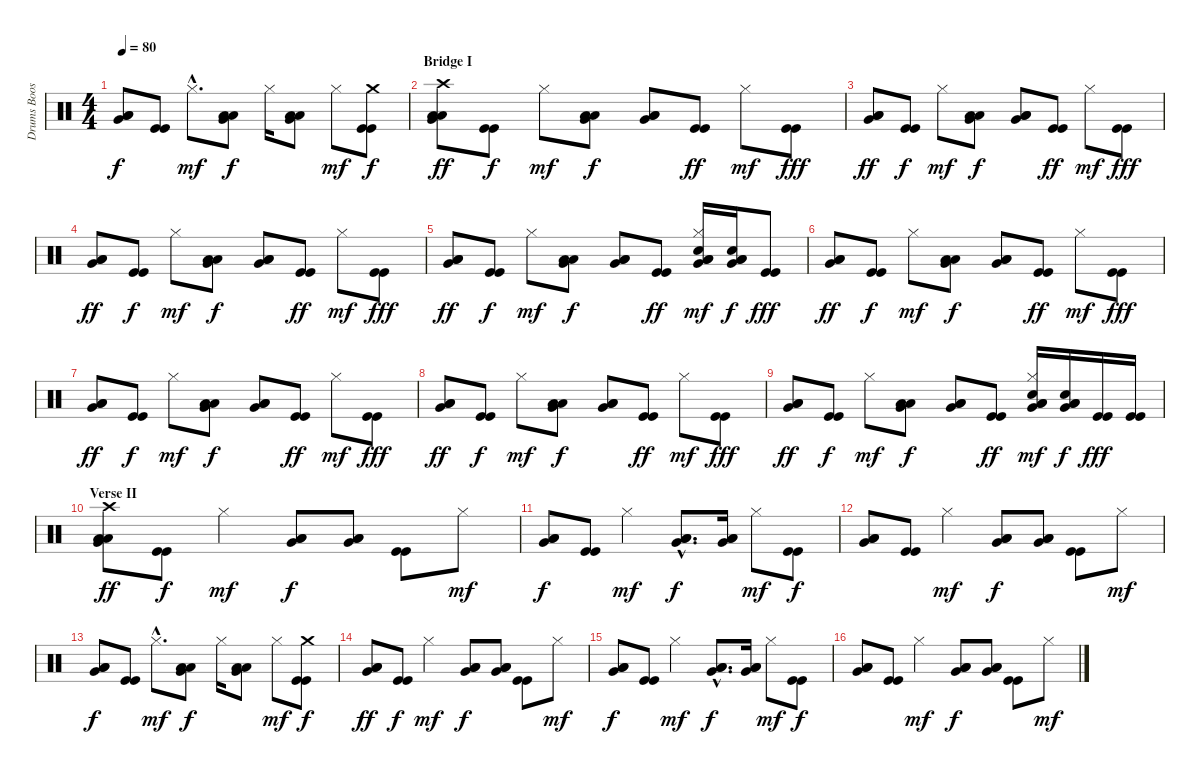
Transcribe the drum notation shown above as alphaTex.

\track ("Drums Boost" "Drums Boos") {instrument percussion}
\staff {score}
\articulation defaults
\ts (4 4)
\tempo 80
\clef neutral
\ks c
("Very Low Tom (hit)" "Low Floor Tom (hit)" "Low Tom (hit)").8{dy f} ("Kick (hit)" "Kick (hit)").8 "Hi-Hat (closed)"{hac}.8{d dy mf} ("Very Low Tom (hit)" "Low Floor Tom (hit)" "Low Tom (hit)").8{dy f} "Hi-Hat (closed)".16 ("Very Low Tom (hit)" "Low Floor Tom (hit)" "Low Tom (hit)").8 "Hi-Hat (closed)".8{dy mf} ("Crash medium (hit)" "Kick (hit)" "Kick (hit)").8{dy f} |
\section ("" "Bridge I")
("Crash high (hit)" "Very Low Tom (hit)" "Low Floor Tom (hit)" "Low Tom (hit)").8{bd 60 dy ff} ("Kick (hit)" "Kick (hit)").8{dy f} "Hi-Hat (closed)".8{dy mf} ("Very Low Tom (hit)" "Low Floor Tom (hit)" "Low Tom (hit)").8{dy f} ("Very Low Tom (hit)" "Low Floor Tom (hit)" "Low Tom (hit)").8 ("Kick (hit)" "Kick (hit)").8{dy ff} "Hi-Hat (closed)".8{dy mf} ("Kick (hit)" "Kick (hit)").8{dy fff} |
("Very Low Tom (hit)" "Low Floor Tom (hit)" "Low Tom (hit)").8{bd 60 dy ff} ("Kick (hit)" "Kick (hit)").8{dy f} "Hi-Hat (closed)".8{dy mf} ("Very Low Tom (hit)" "Low Floor Tom (hit)" "Low Tom (hit)").8{dy f} ("Very Low Tom (hit)" "Low Floor Tom (hit)" "Low Tom (hit)").8 ("Kick (hit)" "Kick (hit)").8{dy ff} "Hi-Hat (closed)".8{dy mf} ("Kick (hit)" "Kick (hit)").8{dy fff} |
("Very Low Tom (hit)" "Low Floor Tom (hit)" "Low Tom (hit)").8{bd 60 dy ff} ("Kick (hit)" "Kick (hit)").8{dy f} "Hi-Hat (closed)".8{dy mf} ("Very Low Tom (hit)" "Low Floor Tom (hit)" "Low Tom (hit)").8{dy f} ("Very Low Tom (hit)" "Low Floor Tom (hit)" "Low Tom (hit)").8 ("Kick (hit)" "Kick (hit)").8{dy ff} "Hi-Hat (closed)".8{dy mf} ("Kick (hit)" "Kick (hit)").8{dy fff} |
("Very Low Tom (hit)" "Low Floor Tom (hit)" "Low Tom (hit)").8{bd 60 dy ff} ("Kick (hit)" "Kick (hit)").8{dy f} "Hi-Hat (closed)".8{dy mf} ("Very Low Tom (hit)" "Low Floor Tom (hit)" "Low Tom (hit)").8{dy f} ("Very Low Tom (hit)" "Low Floor Tom (hit)" "Low Tom (hit)").8 ("Kick (hit)" "Kick (hit)").8{dy ff} ("Hi-Hat (closed)" "Very Low Tom (hit)" "Low Floor Tom (hit)" "Electric Snare (hit)" "Low Tom (hit)").16{dy mf} ("Very Low Tom (hit)" "Low Floor Tom (hit)" "Electric Snare (hit)" "Low Tom (hit)").16{dy f} ("Kick (hit)" "Kick (hit)").8{dy fff} |
("Very Low Tom (hit)" "Low Floor Tom (hit)" "Low Tom (hit)").8{bd 60 dy ff} ("Kick (hit)" "Kick (hit)").8{dy f} "Hi-Hat (closed)".8{dy mf} ("Very Low Tom (hit)" "Low Floor Tom (hit)" "Low Tom (hit)").8{dy f} ("Very Low Tom (hit)" "Low Floor Tom (hit)" "Low Tom (hit)").8 ("Kick (hit)" "Kick (hit)").8{dy ff} "Hi-Hat (closed)".8{dy mf} ("Kick (hit)" "Kick (hit)").8{dy fff} |
("Very Low Tom (hit)" "Low Floor Tom (hit)" "Low Tom (hit)").8{bd 60 dy ff} ("Kick (hit)" "Kick (hit)").8{dy f} "Hi-Hat (closed)".8{dy mf} ("Very Low Tom (hit)" "Low Floor Tom (hit)" "Low Tom (hit)").8{dy f} ("Very Low Tom (hit)" "Low Floor Tom (hit)" "Low Tom (hit)").8 ("Kick (hit)" "Kick (hit)").8{dy ff} "Hi-Hat (closed)".8{dy mf} ("Kick (hit)" "Kick (hit)").8{dy fff} |
("Very Low Tom (hit)" "Low Floor Tom (hit)" "Low Tom (hit)").8{bd 60 dy ff} ("Kick (hit)" "Kick (hit)").8{dy f} "Hi-Hat (closed)".8{dy mf} ("Very Low Tom (hit)" "Low Floor Tom (hit)" "Low Tom (hit)").8{dy f} ("Very Low Tom (hit)" "Low Floor Tom (hit)" "Low Tom (hit)").8 ("Kick (hit)" "Kick (hit)").8{dy ff} "Hi-Hat (closed)".8{dy mf} ("Kick (hit)" "Kick (hit)").8{dy fff} |
("Very Low Tom (hit)" "Low Floor Tom (hit)" "Low Tom (hit)").8{bd 60 dy ff} ("Kick (hit)" "Kick (hit)").8{dy f} "Hi-Hat (closed)".8{dy mf} ("Very Low Tom (hit)" "Low Floor Tom (hit)" "Low Tom (hit)").8{dy f} ("Very Low Tom (hit)" "Low Floor Tom (hit)" "Low Tom (hit)").8 ("Kick (hit)" "Kick (hit)").8{dy ff} ("Hi-Hat (closed)" "Very Low Tom (hit)" "Low Floor Tom (hit)" "Electric Snare (hit)" "Low Tom (hit)").16{dy mf} ("Very Low Tom (hit)" "Low Floor Tom (hit)" "Electric Snare (hit)" "Low Tom (hit)").16{dy f} ("Kick (hit)" "Kick (hit)").16{dy fff} ("Kick (hit)" "Kick (hit)").16 |
\section ("" "Verse II")
("Crash high (hit)" "Very Low Tom (hit)" "Low Floor Tom (hit)" "Low Tom (hit)").8{bd 60 dy ff} ("Kick (hit)" "Kick (hit)").8{dy f} "Hi-Hat (closed)".4{dy mf} ("Very Low Tom (hit)" "Low Floor Tom (hit)" "Low Tom (hit)").8{dy f} ("Very Low Tom (hit)" "Low Floor Tom (hit)" "Low Tom (hit)").8 ("Kick (hit)" "Kick (hit)").8 "Hi-Hat (closed)".8{dy mf} |
("Very Low Tom (hit)" "Low Floor Tom (hit)" "Low Tom (hit)").8{dy f} ("Kick (hit)" "Kick (hit)").8 "Hi-Hat (closed)".4{dy mf} ("Very Low Tom (hit)"{hac} "Low Floor Tom (hit)"{hac} "Low Tom (hit)"{hac}).8{d dy f} ("Very Low Tom (hit)" "Low Floor Tom (hit)" "Low Tom (hit)").16 "Hi-Hat (closed)".8{dy mf} ("Kick (hit)" "Kick (hit)").8{dy f} |
("Very Low Tom (hit)" "Low Floor Tom (hit)" "Low Tom (hit)").8 ("Kick (hit)" "Kick (hit)").8 "Hi-Hat (closed)".4{dy mf} ("Very Low Tom (hit)" "Low Floor Tom (hit)" "Low Tom (hit)").8{dy f} ("Very Low Tom (hit)" "Low Floor Tom (hit)" "Low Tom (hit)").8 ("Kick (hit)" "Kick (hit)").8 "Hi-Hat (closed)".8{dy mf} |
("Very Low Tom (hit)" "Low Floor Tom (hit)" "Low Tom (hit)").8{dy f} ("Kick (hit)" "Kick (hit)").8 "Hi-Hat (closed)"{hac}.8{d dy mf} ("Very Low Tom (hit)" "Low Floor Tom (hit)" "Low Tom (hit)").8{dy f} "Hi-Hat (closed)".16 ("Very Low Tom (hit)" "Low Floor Tom (hit)" "Low Tom (hit)").8 "Hi-Hat (closed)".8{dy mf} ("Crash medium (hit)" "Kick (hit)" "Kick (hit)").8{dy f} |
("Very Low Tom (hit)" "Low Floor Tom (hit)" "Low Tom (hit)").8{bd 60 dy ff} ("Kick (hit)" "Kick (hit)").8{dy f} "Hi-Hat (closed)".4{dy mf} ("Very Low Tom (hit)" "Low Floor Tom (hit)" "Low Tom (hit)").8{dy f} ("Very Low Tom (hit)" "Low Floor Tom (hit)" "Low Tom (hit)").8 ("Kick (hit)" "Kick (hit)").8 "Hi-Hat (closed)".8{dy mf} |
("Very Low Tom (hit)" "Low Floor Tom (hit)" "Low Tom (hit)").8{dy f} ("Kick (hit)" "Kick (hit)").8 "Hi-Hat (closed)".4{dy mf} ("Very Low Tom (hit)"{hac} "Low Floor Tom (hit)"{hac} "Low Tom (hit)"{hac}).8{d dy f} ("Very Low Tom (hit)" "Low Floor Tom (hit)" "Low Tom (hit)").16 "Hi-Hat (closed)".8{dy mf} ("Kick (hit)" "Kick (hit)").8{dy f} |
("Very Low Tom (hit)" "Low Floor Tom (hit)" "Low Tom (hit)").8 ("Kick (hit)" "Kick (hit)").8 "Hi-Hat (closed)".4{dy mf} ("Very Low Tom (hit)" "Low Floor Tom (hit)" "Low Tom (hit)").8{dy f} ("Very Low Tom (hit)" "Low Floor Tom (hit)" "Low Tom (hit)").8 ("Kick (hit)" "Kick (hit)").8 "Hi-Hat (closed)".8{dy mf}
